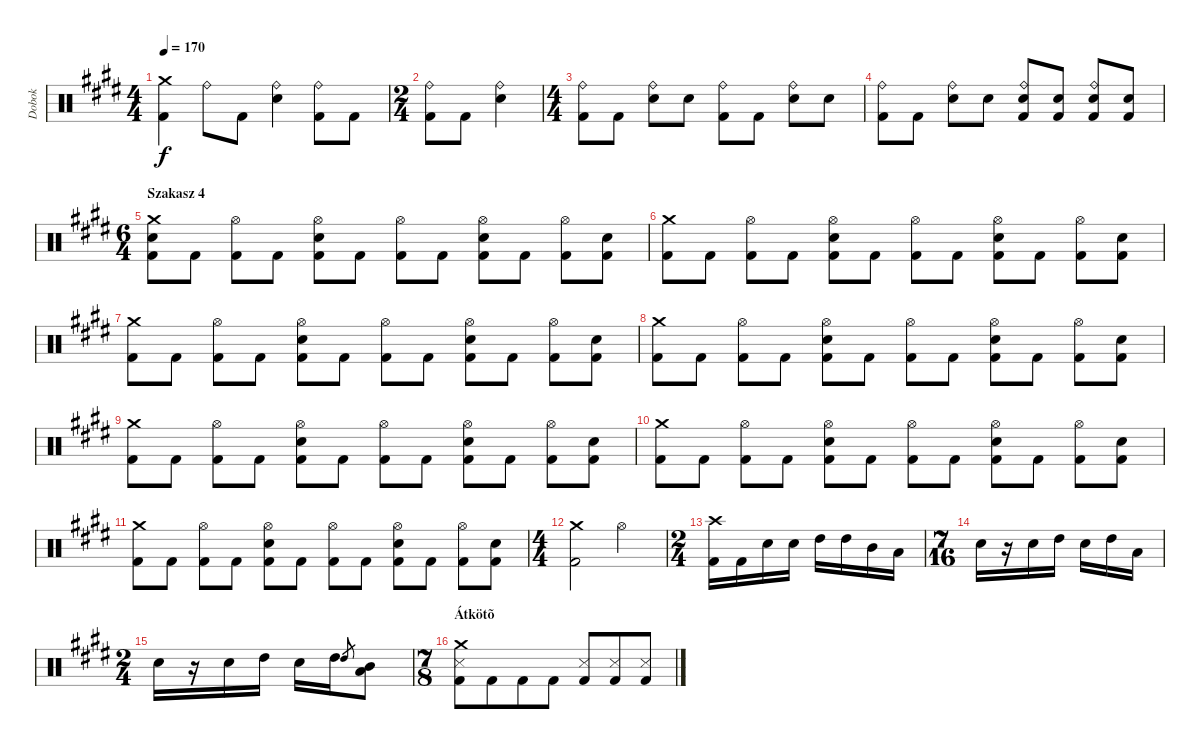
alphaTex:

\track ("Dobok" "Dobok") {instrument percussion}
\staff {score}
\articulation defaults
\ts (4 4)
\tempo 170
\clef neutral
\ks c#minor
("Crash medium (hit)" "Kick (hit) 2").4{dy f} "Ride (bell)".8 "Kick (hit) 2".8 ("Ride (bell)" "Snare (hit) 2").4 ("Ride (bell)" "Kick (hit) 2").8 "Kick (hit) 2".8 |
\ts (2 4)
("Ride (bell)" "Kick (hit) 2").8 "Kick (hit) 2".8 ("Ride (bell)" "Snare (hit) 2").4 |
\ts (4 4)
("Ride (bell)" "Kick (hit) 2").8 "Kick (hit) 2".8 ("Ride (bell)" "Snare (hit) 2").8 "Snare (hit) 2".8 ("Ride (bell)" "Kick (hit) 2").8 "Kick (hit) 2".8 ("Ride (bell)" "Snare (hit) 2").8 "Snare (hit) 2".8 |
("Ride (bell)" "Kick (hit) 2").8 "Kick (hit) 2".8 ("Ride (bell)" "Snare (hit) 2").8 "Snare (hit) 2".8 ("Ride (bell)" "Snare (hit) 2" "Kick (hit) 2").8 ("Snare (hit) 2" "Kick (hit) 2").8 ("Ride (bell)" "Snare (hit) 2" "Kick (hit) 2").8 ("Snare (hit) 2" "Kick (hit) 2").8 |
\ts (6 4)
\section ("" "Szakasz 4")
("Crash medium (hit)" "Snare (hit) 2" "Kick (hit) 2").8 "Kick (hit) 2".8 ("Hi-Hat (open)" "Kick (hit) 2").8 "Kick (hit) 2".8 ("Hi-Hat (open)" "Snare (hit) 2" "Kick (hit) 2").8 "Kick (hit) 2".8 ("Hi-Hat (open)" "Kick (hit) 2").8 "Kick (hit) 2".8 ("Hi-Hat (open)" "Snare (hit) 2" "Kick (hit) 2").8 "Kick (hit) 2".8 ("Hi-Hat (open)" "Kick (hit) 2").8 ("Snare (hit) 2" "Kick (hit) 2").8 |
("Crash medium (hit)" "Kick (hit) 2").8 "Kick (hit) 2".8 ("Hi-Hat (open)" "Kick (hit) 2").8 "Kick (hit) 2".8 ("Hi-Hat (open)" "Snare (hit) 2" "Kick (hit) 2").8 "Kick (hit) 2".8 ("Hi-Hat (open)" "Kick (hit) 2").8 "Kick (hit) 2".8 ("Hi-Hat (open)" "Snare (hit) 2" "Kick (hit) 2").8 "Kick (hit) 2".8 ("Hi-Hat (open)" "Kick (hit) 2").8 ("Snare (hit) 2" "Kick (hit) 2").8 |
("Crash medium (hit)" "Kick (hit) 2").8 "Kick (hit) 2".8 ("Hi-Hat (open)" "Kick (hit) 2").8 "Kick (hit) 2".8 ("Hi-Hat (open)" "Snare (hit) 2" "Kick (hit) 2").8 "Kick (hit) 2".8 ("Hi-Hat (open)" "Kick (hit) 2").8 "Kick (hit) 2".8 ("Hi-Hat (open)" "Snare (hit) 2" "Kick (hit) 2").8 "Kick (hit) 2".8 ("Hi-Hat (open)" "Kick (hit) 2").8 ("Snare (hit) 2" "Kick (hit) 2").8 |
("Crash medium (hit)" "Kick (hit) 2").8 "Kick (hit) 2".8 ("Hi-Hat (open)" "Kick (hit) 2").8 "Kick (hit) 2".8 ("Hi-Hat (open)" "Snare (hit) 2" "Kick (hit) 2").8 "Kick (hit) 2".8 ("Hi-Hat (open)" "Kick (hit) 2").8 "Kick (hit) 2".8 ("Hi-Hat (open)" "Snare (hit) 2" "Kick (hit) 2").8 "Kick (hit) 2".8 ("Hi-Hat (open)" "Kick (hit) 2").8 ("Snare (hit) 2" "Kick (hit) 2").8 |
("Crash medium (hit)" "Kick (hit) 2").8 "Kick (hit) 2".8 ("Hi-Hat (open)" "Kick (hit) 2").8 "Kick (hit) 2".8 ("Hi-Hat (open)" "Snare (hit) 2" "Kick (hit) 2").8 "Kick (hit) 2".8 ("Hi-Hat (open)" "Kick (hit) 2").8 "Kick (hit) 2".8 ("Hi-Hat (open)" "Snare (hit) 2" "Kick (hit) 2").8 "Kick (hit) 2".8 ("Hi-Hat (open)" "Kick (hit) 2").8 ("Snare (hit) 2" "Kick (hit) 2").8 |
("Crash medium (hit)" "Kick (hit) 2").8 "Kick (hit) 2".8 ("Hi-Hat (open)" "Kick (hit) 2").8 "Kick (hit) 2".8 ("Hi-Hat (open)" "Snare (hit) 2" "Kick (hit) 2").8 "Kick (hit) 2".8 ("Hi-Hat (open)" "Kick (hit) 2").8 "Kick (hit) 2".8 ("Hi-Hat (open)" "Snare (hit) 2" "Kick (hit) 2").8 "Kick (hit) 2".8 ("Hi-Hat (open)" "Kick (hit) 2").8 ("Snare (hit) 2" "Kick (hit) 2").8 |
("Crash medium (hit)" "Kick (hit) 2").8 "Kick (hit) 2".8 ("Hi-Hat (open)" "Kick (hit) 2").8 "Kick (hit) 2".8 ("Hi-Hat (open)" "Snare (hit) 2" "Kick (hit) 2").8 "Kick (hit) 2".8 ("Hi-Hat (open)" "Kick (hit) 2").8 "Kick (hit) 2".8 ("Hi-Hat (open)" "Snare (hit) 2" "Kick (hit) 2").8 "Kick (hit) 2".8 ("Hi-Hat (open)" "Kick (hit) 2").8 ("Snare (hit) 2" "Kick (hit) 2").8 |
\ts (4 4)
("Crash medium (hit)" "Kick (hit) 2").2 "Hi-Hat (open)".2 |
\ts (2 4)
("Crash high (hit)" "Kick (hit) 2").16 "Kick (hit) 2".16 "Snare (hit) 2".16 "Snare (hit) 2".16 "High Tom (hit)".16 "High Tom (hit)".16 "Mid Tom (hit)".16 "Low Tom (hit)".16 |
\ts (7 16)
"Snare (hit) 2".16 r.16 "Snare (hit) 2".16 "High Tom (hit)".16 "Snare (hit) 2".16 "High Tom (hit)".16 "Low Tom (hit)".16 |
\ts (2 4)
"Snare (hit) 2".16 r.16 "Snare (hit) 2".16 "High Tom (hit)".16 "Snare (hit) 2".16 "High Tom (hit)".16 "High Tom (hit)".8{gr} ("Mid Tom (hit)" "Low Tom (hit)").8 |
\ts (7 8)
\section ("" "Átkötõ")
("Crash medium (hit)" "Snare (side stick) 3" "Kick (hit) 2").8 "Kick (hit) 2".8 "Kick (hit) 2".8 "Kick (hit) 2".8 ("Snare (side stick) 3" "Kick (hit) 2").8 ("Snare (side stick) 3" "Kick (hit) 2").8 ("Snare (side stick) 3" "Kick (hit) 2").8
